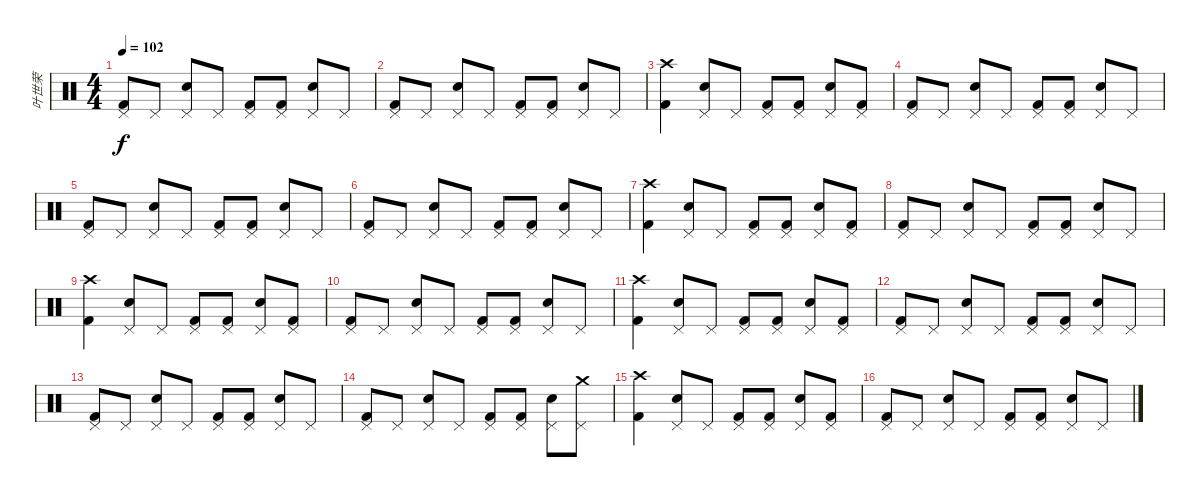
\track ("叶世荣" "叶世荣") {instrument percussion}
\staff {score}
\articulation defaults
\ts (4 4)
\tempo 102
\clef neutral
\ks c
("Pedal Hi-Hat (hit)" "Kick (hit) 2").8{dy f} "Pedal Hi-Hat (hit)".8 ("Pedal Hi-Hat (hit)" "Snare (hit) 2").8 "Pedal Hi-Hat (hit)".8 ("Pedal Hi-Hat (hit)" "Kick (hit) 2").8 ("Pedal Hi-Hat (hit)" "Kick (hit) 2").8 ("Pedal Hi-Hat (hit)" "Snare (hit) 2").8 "Pedal Hi-Hat (hit)".8 |
("Pedal Hi-Hat (hit)" "Kick (hit) 2").8 "Pedal Hi-Hat (hit)".8 ("Pedal Hi-Hat (hit)" "Snare (hit) 2").8 "Pedal Hi-Hat (hit)".8 ("Pedal Hi-Hat (hit)" "Kick (hit) 2").8 ("Pedal Hi-Hat (hit)" "Kick (hit) 2").8 ("Pedal Hi-Hat (hit)" "Snare (hit) 2").8 "Pedal Hi-Hat (hit)".8 |
("Crash high (hit)" "Kick (hit) 2").4 ("Pedal Hi-Hat (hit)" "Snare (hit) 2").8 "Pedal Hi-Hat (hit)".8 ("Pedal Hi-Hat (hit)" "Kick (hit) 2").8 ("Pedal Hi-Hat (hit)" "Kick (hit) 2").8 ("Pedal Hi-Hat (hit)" "Snare (hit) 2").8 ("Pedal Hi-Hat (hit)" "Kick (hit) 2").8 |
("Pedal Hi-Hat (hit)" "Kick (hit) 2").8 "Pedal Hi-Hat (hit)".8 ("Pedal Hi-Hat (hit)" "Snare (hit) 2").8 "Pedal Hi-Hat (hit)".8 ("Pedal Hi-Hat (hit)" "Kick (hit) 2").8 ("Pedal Hi-Hat (hit)" "Kick (hit) 2").8 ("Pedal Hi-Hat (hit)" "Snare (hit) 2").8 "Pedal Hi-Hat (hit)".8 |
("Pedal Hi-Hat (hit)" "Kick (hit) 2").8 "Pedal Hi-Hat (hit)".8 ("Pedal Hi-Hat (hit)" "Snare (hit) 2").8 "Pedal Hi-Hat (hit)".8 ("Pedal Hi-Hat (hit)" "Kick (hit) 2").8 ("Pedal Hi-Hat (hit)" "Kick (hit) 2").8 ("Pedal Hi-Hat (hit)" "Snare (hit) 2").8 "Pedal Hi-Hat (hit)".8 |
("Pedal Hi-Hat (hit)" "Kick (hit) 2").8 "Pedal Hi-Hat (hit)".8 ("Pedal Hi-Hat (hit)" "Snare (hit) 2").8 "Pedal Hi-Hat (hit)".8 ("Pedal Hi-Hat (hit)" "Kick (hit) 2").8 ("Pedal Hi-Hat (hit)" "Kick (hit) 2").8 ("Pedal Hi-Hat (hit)" "Snare (hit) 2").8 "Pedal Hi-Hat (hit)".8 |
("Crash high (hit)" "Kick (hit) 2").4 ("Pedal Hi-Hat (hit)" "Snare (hit) 2").8 "Pedal Hi-Hat (hit)".8 ("Pedal Hi-Hat (hit)" "Kick (hit) 2").8 ("Pedal Hi-Hat (hit)" "Kick (hit) 2").8 ("Pedal Hi-Hat (hit)" "Snare (hit) 2").8 ("Pedal Hi-Hat (hit)" "Kick (hit) 2").8 |
("Pedal Hi-Hat (hit)" "Kick (hit) 2").8 "Pedal Hi-Hat (hit)".8 ("Pedal Hi-Hat (hit)" "Snare (hit) 2").8 "Pedal Hi-Hat (hit)".8 ("Pedal Hi-Hat (hit)" "Kick (hit) 2").8 ("Pedal Hi-Hat (hit)" "Kick (hit) 2").8 ("Pedal Hi-Hat (hit)" "Snare (hit) 2").8 "Pedal Hi-Hat (hit)".8 |
("Crash high (hit)" "Kick (hit) 2").4 ("Pedal Hi-Hat (hit)" "Snare (hit) 2").8 "Pedal Hi-Hat (hit)".8 ("Pedal Hi-Hat (hit)" "Kick (hit) 2").8 ("Pedal Hi-Hat (hit)" "Kick (hit) 2").8 ("Pedal Hi-Hat (hit)" "Snare (hit) 2").8 ("Pedal Hi-Hat (hit)" "Kick (hit) 2").8 |
("Pedal Hi-Hat (hit)" "Kick (hit) 2").8 "Pedal Hi-Hat (hit)".8 ("Pedal Hi-Hat (hit)" "Snare (hit) 2").8 "Pedal Hi-Hat (hit)".8 ("Pedal Hi-Hat (hit)" "Kick (hit) 2").8 ("Pedal Hi-Hat (hit)" "Kick (hit) 2").8 ("Pedal Hi-Hat (hit)" "Snare (hit) 2").8 "Pedal Hi-Hat (hit)".8 |
("Crash high (hit)" "Kick (hit) 2").4 ("Pedal Hi-Hat (hit)" "Snare (hit) 2").8 "Pedal Hi-Hat (hit)".8 ("Pedal Hi-Hat (hit)" "Kick (hit) 2").8 ("Pedal Hi-Hat (hit)" "Kick (hit) 2").8 ("Pedal Hi-Hat (hit)" "Snare (hit) 2").8 ("Pedal Hi-Hat (hit)" "Kick (hit) 2").8 |
("Pedal Hi-Hat (hit)" "Kick (hit) 2").8 "Pedal Hi-Hat (hit)".8 ("Pedal Hi-Hat (hit)" "Snare (hit) 2").8 "Pedal Hi-Hat (hit)".8 ("Pedal Hi-Hat (hit)" "Kick (hit) 2").8 ("Pedal Hi-Hat (hit)" "Kick (hit) 2").8 ("Pedal Hi-Hat (hit)" "Snare (hit) 2").8 "Pedal Hi-Hat (hit)".8 |
("Pedal Hi-Hat (hit)" "Kick (hit) 2").8 "Pedal Hi-Hat (hit)".8 ("Pedal Hi-Hat (hit)" "Snare (hit) 2").8 "Pedal Hi-Hat (hit)".8 ("Pedal Hi-Hat (hit)" "Kick (hit) 2").8 ("Pedal Hi-Hat (hit)" "Kick (hit) 2").8 ("Pedal Hi-Hat (hit)" "Snare (hit) 2").8 "Pedal Hi-Hat (hit)".8 |
("Pedal Hi-Hat (hit)" "Kick (hit) 2").8 "Pedal Hi-Hat (hit)".8 ("Pedal Hi-Hat (hit)" "Snare (hit) 2").8 "Pedal Hi-Hat (hit)".8 ("Pedal Hi-Hat (hit)" "Kick (hit) 2").8 ("Pedal Hi-Hat (hit)" "Kick (hit) 2").8 ("Pedal Hi-Hat (hit)" "Snare (hit) 2").8 ("Pedal Hi-Hat (hit)" "Crash medium (hit)").8 |
("Crash high (hit)" "Kick (hit) 2").4 ("Pedal Hi-Hat (hit)" "Snare (hit) 2").8 "Pedal Hi-Hat (hit)".8 ("Pedal Hi-Hat (hit)" "Kick (hit) 2").8 ("Pedal Hi-Hat (hit)" "Kick (hit) 2").8 ("Pedal Hi-Hat (hit)" "Snare (hit) 2").8 ("Pedal Hi-Hat (hit)" "Kick (hit) 2").8 |
("Pedal Hi-Hat (hit)" "Kick (hit) 2").8 "Pedal Hi-Hat (hit)".8 ("Pedal Hi-Hat (hit)" "Snare (hit) 2").8 "Pedal Hi-Hat (hit)".8 ("Pedal Hi-Hat (hit)" "Kick (hit) 2").8 ("Pedal Hi-Hat (hit)" "Kick (hit) 2").8 ("Pedal Hi-Hat (hit)" "Snare (hit) 2").8 "Pedal Hi-Hat (hit)".8
